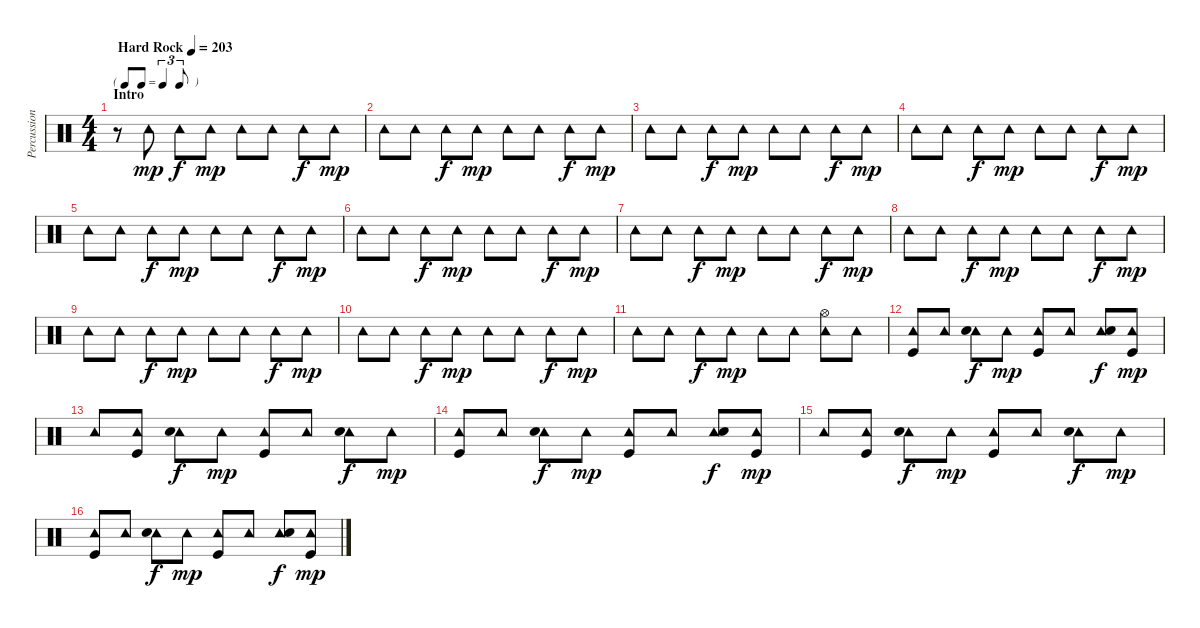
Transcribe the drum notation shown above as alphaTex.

\track ("Percussion" "Percussion") {instrument percussion}
\staff {score}
\articulation defaults
\ts (4 4)
\tf triplet8th
\section ("" "Intro")
\tempo (203 "Hard Rock")
\clef neutral
\ks c
r.8{dy mp} "Tambourine (hit)".8 "Tambourine (hit)".8{dy f} "Tambourine (hit)".8{dy mp} "Tambourine (hit)".8 "Tambourine (hit)".8 "Tambourine (hit)".8{dy f} "Tambourine (hit)".8{dy mp} |
"Tambourine (hit)".8 "Tambourine (hit)".8 "Tambourine (hit)".8{dy f} "Tambourine (hit)".8{dy mp} "Tambourine (hit)".8 "Tambourine (hit)".8 "Tambourine (hit)".8{dy f} "Tambourine (hit)".8{dy mp} |
"Tambourine (hit)".8 "Tambourine (hit)".8 "Tambourine (hit)".8{dy f} "Tambourine (hit)".8{dy mp} "Tambourine (hit)".8 "Tambourine (hit)".8 "Tambourine (hit)".8{dy f} "Tambourine (hit)".8{dy mp} |
"Tambourine (hit)".8 "Tambourine (hit)".8 "Tambourine (hit)".8{dy f} "Tambourine (hit)".8{dy mp} "Tambourine (hit)".8 "Tambourine (hit)".8 "Tambourine (hit)".8{dy f} "Tambourine (hit)".8{dy mp} |
"Tambourine (hit)".8 "Tambourine (hit)".8 "Tambourine (hit)".8{dy f} "Tambourine (hit)".8{dy mp} "Tambourine (hit)".8 "Tambourine (hit)".8 "Tambourine (hit)".8{dy f} "Tambourine (hit)".8{dy mp} |
"Tambourine (hit)".8 "Tambourine (hit)".8 "Tambourine (hit)".8{dy f} "Tambourine (hit)".8{dy mp} "Tambourine (hit)".8 "Tambourine (hit)".8 "Tambourine (hit)".8{dy f} "Tambourine (hit)".8{dy mp} |
"Tambourine (hit)".8 "Tambourine (hit)".8 "Tambourine (hit)".8{dy f} "Tambourine (hit)".8{dy mp} "Tambourine (hit)".8 "Tambourine (hit)".8 "Tambourine (hit)".8{dy f} "Tambourine (hit)".8{dy mp} |
"Tambourine (hit)".8 "Tambourine (hit)".8 "Tambourine (hit)".8{dy f} "Tambourine (hit)".8{dy mp} "Tambourine (hit)".8 "Tambourine (hit)".8 "Tambourine (hit)".8{dy f} "Tambourine (hit)".8{dy mp} |
"Tambourine (hit)".8 "Tambourine (hit)".8 "Tambourine (hit)".8{dy f} "Tambourine (hit)".8{dy mp} "Tambourine (hit)".8 "Tambourine (hit)".8 "Tambourine (hit)".8{dy f} "Tambourine (hit)".8{dy mp} |
"Tambourine (hit)".8 "Tambourine (hit)".8 "Tambourine (hit)".8{dy f} "Tambourine (hit)".8{dy mp} "Tambourine (hit)".8 "Tambourine (hit)".8 "Tambourine (hit)".8{dy f} "Tambourine (hit)".8{dy mp} |
"Tambourine (hit)".8 "Tambourine (hit)".8 "Tambourine (hit)".8{dy f} "Tambourine (hit)".8{dy mp} "Tambourine (hit)".8 "Tambourine (hit)".8 ("Tambourine (hit)" "Hi-Hat (open)").8 "Tambourine (hit)".8 |
("Tambourine (hit)" "Kick (hit)").8 "Tambourine (hit)".8 ("Tambourine (hit)" "Snare (hit) 2").8{dy f} "Tambourine (hit)".8{dy mp} ("Tambourine (hit)" "Kick (hit)").8 "Tambourine (hit)".8 ("Tambourine (hit)" "Snare (hit) 2").8{dy f} ("Tambourine (hit)" "Kick (hit)").8{dy mp} |
"Tambourine (hit)".8 ("Tambourine (hit)" "Kick (hit)").8 ("Tambourine (hit)" "Snare (hit) 2").8{dy f} "Tambourine (hit)".8{dy mp} ("Tambourine (hit)" "Kick (hit)").8 "Tambourine (hit)".8 ("Tambourine (hit)" "Snare (hit) 2").8{dy f} "Tambourine (hit)".8{dy mp} |
("Tambourine (hit)" "Kick (hit)").8 "Tambourine (hit)".8 ("Tambourine (hit)" "Snare (hit) 2").8{dy f} "Tambourine (hit)".8{dy mp} ("Tambourine (hit)" "Kick (hit)").8 "Tambourine (hit)".8 ("Tambourine (hit)" "Snare (hit) 2").8{dy f} ("Tambourine (hit)" "Kick (hit)").8{dy mp} |
"Tambourine (hit)".8 ("Tambourine (hit)" "Kick (hit)").8 ("Tambourine (hit)" "Snare (hit) 2").8{dy f} "Tambourine (hit)".8{dy mp} ("Tambourine (hit)" "Kick (hit)").8 "Tambourine (hit)".8 ("Tambourine (hit)" "Snare (hit) 2").8{dy f} "Tambourine (hit)".8{dy mp} |
("Tambourine (hit)" "Kick (hit)").8 "Tambourine (hit)".8 ("Tambourine (hit)" "Snare (hit) 2").8{dy f} "Tambourine (hit)".8{dy mp} ("Tambourine (hit)" "Kick (hit)").8 "Tambourine (hit)".8 ("Tambourine (hit)" "Snare (hit) 2").8{dy f} ("Tambourine (hit)" "Kick (hit)").8{dy mp}
